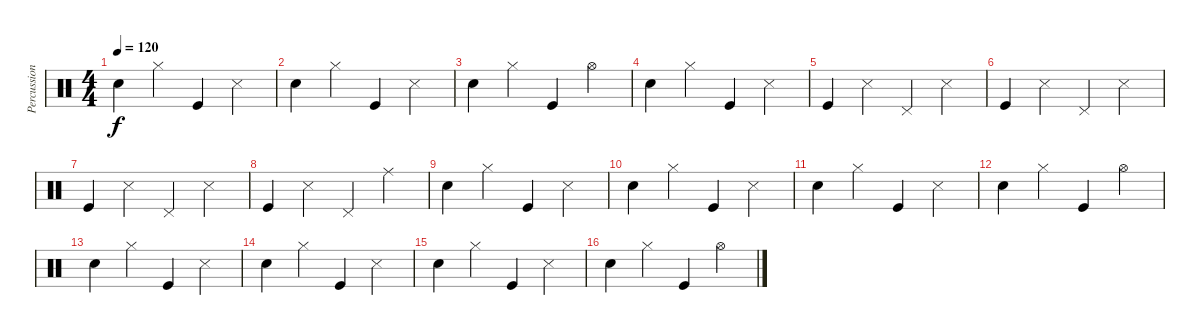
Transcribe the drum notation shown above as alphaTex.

\track ("Percussion" "Percussion") {instrument percussion}
\staff {score}
\articulation defaults
\ts (4 4)
\tempo 120
\clef neutral
\ks c "Snare (hit) 2".4{dy f} "Hi-Hat (closed)".4 "Kick (hit)".4 "Snare (side stick) 3".4
|
"Snare (hit) 2".4 "Hi-Hat (closed)".4 "Kick (hit)".4 "Snare (side stick) 3".4 |
"Snare (hit) 2".4 "Hi-Hat (closed)".4 "Kick (hit)".4 "Hi-Hat (open)".4 |
"Snare (hit) 2".4 "Hi-Hat (closed)".4 "Kick (hit)".4 "Snare (side stick) 3".4 |
"Kick (hit)".4 "Snare (side stick) 3".4 "Pedal Hi-Hat (hit)".4 "Snare (side stick) 3".4 |
"Kick (hit)".4 "Snare (side stick) 3".4 "Pedal Hi-Hat (hit)".4 "Snare (side stick) 3".4 |
"Kick (hit)".4 "Snare (side stick) 3".4 "Pedal Hi-Hat (hit)".4 "Snare (side stick) 3".4 |
"Kick (hit)".4 "Snare (side stick) 3".4 "Pedal Hi-Hat (hit)".4 "Ride (middle)".4 |
"Snare (hit) 2".4 "Hi-Hat (closed)".4 "Kick (hit)".4 "Snare (side stick) 3".4 |
"Snare (hit) 2".4 "Hi-Hat (closed)".4 "Kick (hit)".4 "Snare (side stick) 3".4 |
"Snare (hit) 2".4 "Hi-Hat (closed)".4 "Kick (hit)".4 "Snare (side stick) 3".4 |
"Snare (hit) 2".4 "Hi-Hat (closed)".4 "Kick (hit)".4 "Hi-Hat (open)".4 |
"Snare (hit) 2".4 "Hi-Hat (closed)".4 "Kick (hit)".4 "Snare (side stick) 3".4 |
"Snare (hit) 2".4 "Hi-Hat (closed)".4 "Kick (hit)".4 "Snare (side stick) 3".4 |
"Snare (hit) 2".4 "Hi-Hat (closed)".4 "Kick (hit)".4 "Snare (side stick) 3".4 |
"Snare (hit) 2".4 "Hi-Hat (closed)".4 "Kick (hit)".4 "Hi-Hat (open)".4
